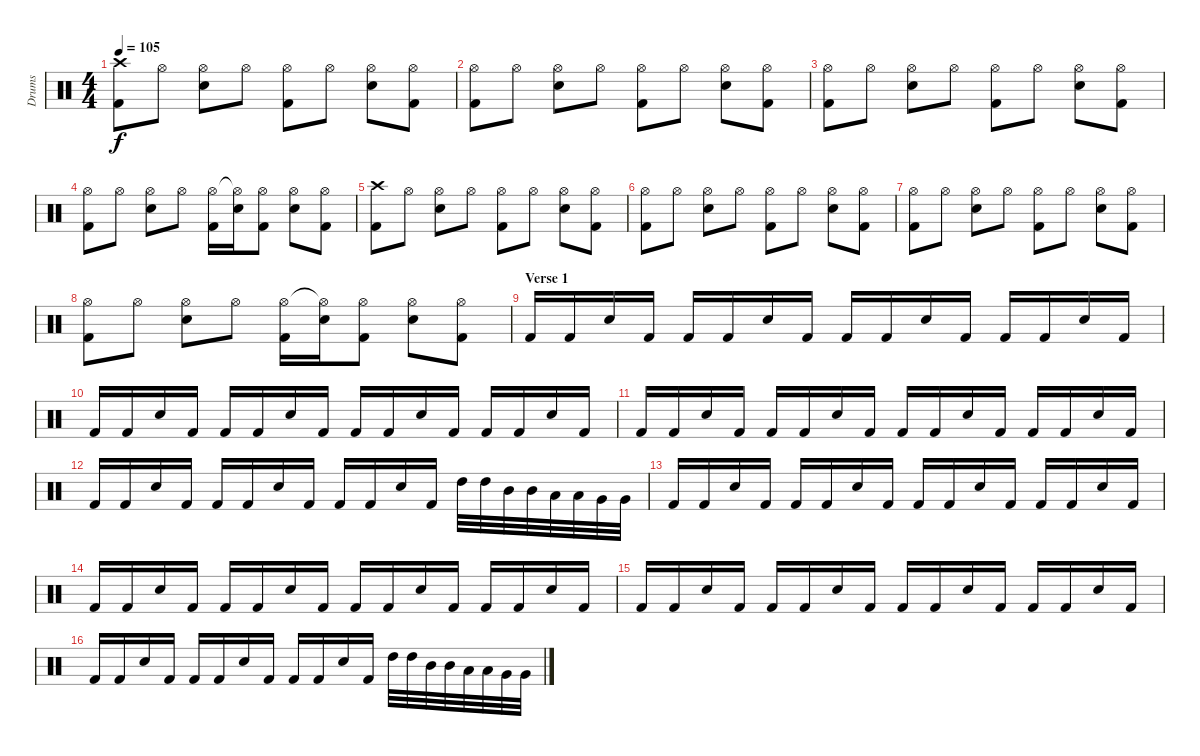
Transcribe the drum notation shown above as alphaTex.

\track ("Drums" "Drums") {instrument percussion}
\staff {score}
\articulation defaults
\ts (4 4)
\tempo 105
\clef neutral
\ks c
("Crash high (hit)" "Kick (hit) 2").8{dy f} "Hi-Hat (open)".8 ("Hi-Hat (open)" "Electric Snare (hit)").8 "Hi-Hat (open)".8 ("Hi-Hat (open)" "Kick (hit) 2").8 "Hi-Hat (open)".8 ("Hi-Hat (open)" "Electric Snare (hit)").8 ("Hi-Hat (open)" "Kick (hit) 2").8 |
("Hi-Hat (open)" "Kick (hit) 2").8 "Hi-Hat (open)".8 ("Hi-Hat (open)" "Electric Snare (hit)").8 "Hi-Hat (open)".8 ("Hi-Hat (open)" "Kick (hit) 2").8 "Hi-Hat (open)".8 ("Hi-Hat (open)" "Electric Snare (hit)").8 ("Hi-Hat (open)" "Kick (hit) 2").8 |
("Hi-Hat (open)" "Kick (hit) 2").8 "Hi-Hat (open)".8 ("Hi-Hat (open)" "Electric Snare (hit)").8 "Hi-Hat (open)".8 ("Hi-Hat (open)" "Kick (hit) 2").8 "Hi-Hat (open)".8 ("Hi-Hat (open)" "Electric Snare (hit)").8 ("Hi-Hat (open)" "Kick (hit) 2").8 |
("Hi-Hat (open)" "Kick (hit) 2").8 "Hi-Hat (open)".8 ("Hi-Hat (open)" "Electric Snare (hit)").8 "Hi-Hat (open)".8 ("Hi-Hat (open)" "Kick (hit) 2").16 ("Hi-Hat (open)"{t} "Electric Snare (hit)").16 ("Hi-Hat (open)" "Kick (hit) 2").8 ("Hi-Hat (open)" "Electric Snare (hit)").8 ("Hi-Hat (open)" "Kick (hit) 2").8 |
("Crash high (hit)" "Kick (hit) 2").8 "Hi-Hat (open)".8 ("Hi-Hat (open)" "Electric Snare (hit)").8 "Hi-Hat (open)".8 ("Hi-Hat (open)" "Kick (hit) 2").8 "Hi-Hat (open)".8 ("Hi-Hat (open)" "Electric Snare (hit)").8 ("Hi-Hat (open)" "Kick (hit) 2").8 |
("Hi-Hat (open)" "Kick (hit) 2").8 "Hi-Hat (open)".8 ("Hi-Hat (open)" "Electric Snare (hit)").8 "Hi-Hat (open)".8 ("Hi-Hat (open)" "Kick (hit) 2").8 "Hi-Hat (open)".8 ("Hi-Hat (open)" "Electric Snare (hit)").8 ("Hi-Hat (open)" "Kick (hit) 2").8 |
("Hi-Hat (open)" "Kick (hit) 2").8 "Hi-Hat (open)".8 ("Hi-Hat (open)" "Electric Snare (hit)").8 "Hi-Hat (open)".8 ("Hi-Hat (open)" "Kick (hit) 2").8 "Hi-Hat (open)".8 ("Hi-Hat (open)" "Electric Snare (hit)").8 ("Hi-Hat (open)" "Kick (hit) 2").8 |
("Hi-Hat (open)" "Kick (hit) 2").8 "Hi-Hat (open)".8 ("Hi-Hat (open)" "Electric Snare (hit)").8 "Hi-Hat (open)".8 ("Hi-Hat (open)" "Kick (hit) 2").16 ("Hi-Hat (open)"{t} "Electric Snare (hit)").16 ("Hi-Hat (open)" "Kick (hit) 2").8 ("Hi-Hat (open)" "Electric Snare (hit)").8 ("Hi-Hat (open)" "Kick (hit) 2").8 |
\section ("" "Verse 1")
"Kick (hit) 2".16 "Kick (hit) 2".16 "Electric Snare (hit)".16 "Kick (hit) 2".16 "Kick (hit) 2".16 "Kick (hit) 2".16 "Electric Snare (hit)".16 "Kick (hit) 2".16 "Kick (hit) 2".16 "Kick (hit) 2".16 "Electric Snare (hit)".16 "Kick (hit) 2".16 "Kick (hit) 2".16 "Kick (hit) 2".16 "Electric Snare (hit)".16 "Kick (hit) 2".16 |
"Kick (hit) 2".16 "Kick (hit) 2".16 "Electric Snare (hit)".16 "Kick (hit) 2".16 "Kick (hit) 2".16 "Kick (hit) 2".16 "Electric Snare (hit)".16 "Kick (hit) 2".16 "Kick (hit) 2".16 "Kick (hit) 2".16 "Electric Snare (hit)".16 "Kick (hit) 2".16 "Kick (hit) 2".16 "Kick (hit) 2".16 "Electric Snare (hit)".16 "Kick (hit) 2".16 |
"Kick (hit) 2".16 "Kick (hit) 2".16 "Electric Snare (hit)".16 "Kick (hit) 2".16 "Kick (hit) 2".16 "Kick (hit) 2".16 "Electric Snare (hit)".16 "Kick (hit) 2".16 "Kick (hit) 2".16 "Kick (hit) 2".16 "Electric Snare (hit)".16 "Kick (hit) 2".16 "Kick (hit) 2".16 "Kick (hit) 2".16 "Electric Snare (hit)".16 "Kick (hit) 2".16 |
"Kick (hit) 2".16 "Kick (hit) 2".16 "Electric Snare (hit)".16 "Kick (hit) 2".16 "Kick (hit) 2".16 "Kick (hit) 2".16 "Electric Snare (hit)".16 "Kick (hit) 2".16 "Kick (hit) 2".16 "Kick (hit) 2".16 "Electric Snare (hit)".16 "Kick (hit) 2".16 "High Tom (hit)".32 "High Tom (hit)".32 "Mid Tom (hit)".32 "Mid Tom (hit)".32 "Low Tom (hit)".32 "Low Tom (hit)".32 "Very Low Tom (hit)".32 "Very Low Tom (hit)".32 |
"Kick (hit) 2".16 "Kick (hit) 2".16 "Electric Snare (hit)".16 "Kick (hit) 2".16 "Kick (hit) 2".16 "Kick (hit) 2".16 "Electric Snare (hit)".16 "Kick (hit) 2".16 "Kick (hit) 2".16 "Kick (hit) 2".16 "Electric Snare (hit)".16 "Kick (hit) 2".16 "Kick (hit) 2".16 "Kick (hit) 2".16 "Electric Snare (hit)".16 "Kick (hit) 2".16 |
"Kick (hit) 2".16 "Kick (hit) 2".16 "Electric Snare (hit)".16 "Kick (hit) 2".16 "Kick (hit) 2".16 "Kick (hit) 2".16 "Electric Snare (hit)".16 "Kick (hit) 2".16 "Kick (hit) 2".16 "Kick (hit) 2".16 "Electric Snare (hit)".16 "Kick (hit) 2".16 "Kick (hit) 2".16 "Kick (hit) 2".16 "Electric Snare (hit)".16 "Kick (hit) 2".16 |
"Kick (hit) 2".16 "Kick (hit) 2".16 "Electric Snare (hit)".16 "Kick (hit) 2".16 "Kick (hit) 2".16 "Kick (hit) 2".16 "Electric Snare (hit)".16 "Kick (hit) 2".16 "Kick (hit) 2".16 "Kick (hit) 2".16 "Electric Snare (hit)".16 "Kick (hit) 2".16 "Kick (hit) 2".16 "Kick (hit) 2".16 "Electric Snare (hit)".16 "Kick (hit) 2".16 |
"Kick (hit) 2".16 "Kick (hit) 2".16 "Electric Snare (hit)".16 "Kick (hit) 2".16 "Kick (hit) 2".16 "Kick (hit) 2".16 "Electric Snare (hit)".16 "Kick (hit) 2".16 "Kick (hit) 2".16 "Kick (hit) 2".16 "Electric Snare (hit)".16 "Kick (hit) 2".16 "High Tom (hit)".32 "High Tom (hit)".32 "Mid Tom (hit)".32 "Mid Tom (hit)".32 "Low Tom (hit)".32 "Low Tom (hit)".32 "Very Low Tom (hit)".32 "Very Low Tom (hit)".32
